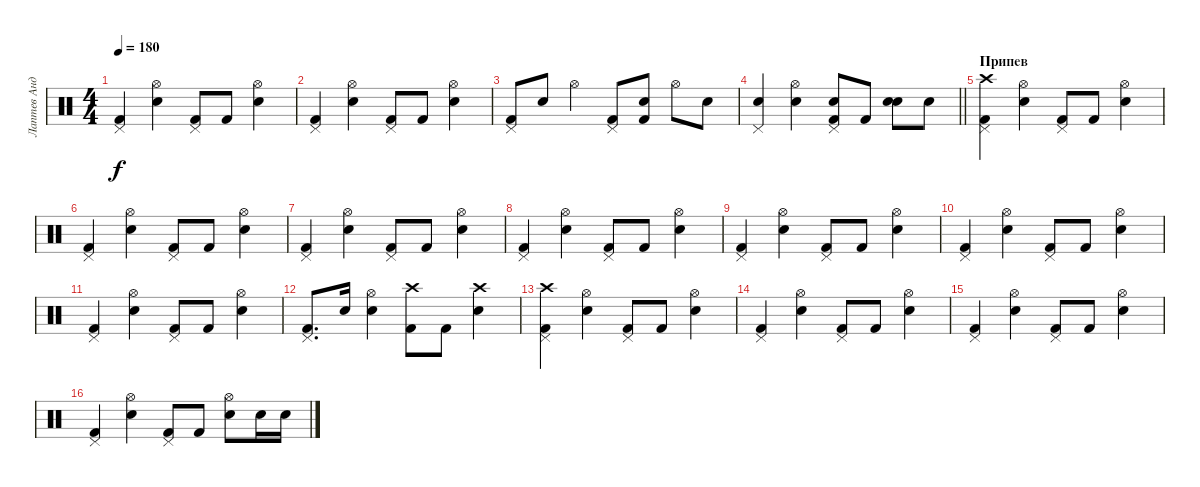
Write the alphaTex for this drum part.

\track ("Лаптев Андрей" "Лаптев Анд") {instrument percussion}
\staff {score}
\articulation defaults
\ts (4 4)
\tempo 180
\clef neutral
\ks c
("Kick (hit) 2" "Pedal Hi-Hat (hit)").4{dy f} ("Snare (hit) 2" "Hi-Hat (open)").4 ("Kick (hit) 2" "Pedal Hi-Hat (hit)").8 "Kick (hit) 2".8 ("Snare (hit) 2" "Hi-Hat (open)").4 |
("Kick (hit) 2" "Pedal Hi-Hat (hit)").4 ("Snare (hit) 2" "Hi-Hat (open)").4 ("Kick (hit) 2" "Pedal Hi-Hat (hit)").8 "Kick (hit) 2".8 ("Snare (hit) 2" "Hi-Hat (open)").4 |
("Kick (hit) 2" "Pedal Hi-Hat (hit)").8 "Snare (hit) 2".8 "Hi-Hat (open)".4 ("Kick (hit) 2" "Pedal Hi-Hat (hit)").8 ("Snare (hit) 2" "Kick (hit) 2").8 "Hi-Hat (open)".8 "Snare (hit) 2".8 |
\barLineRight lightlight
("Snare (hit) 2" "Pedal Hi-Hat (hit)").4 ("Snare (hit) 2" "Hi-Hat (open)").4 ("Snare (hit) 2" "Kick (hit) 2" "Pedal Hi-Hat (hit)").8 "Kick (hit) 2".8 ("Snare (hit) 2" "Electric Snare (hit)").8 "Snare (hit) 2".8 |
\section ("" "Припев")
("Kick (hit) 2" "Crash high (hit)" "Pedal Hi-Hat (hit)").4 ("Snare (hit) 2" "Hi-Hat (open)").4 ("Kick (hit) 2" "Pedal Hi-Hat (hit)").8 "Kick (hit) 2".8 ("Snare (hit) 2" "Hi-Hat (open)").4 |
("Kick (hit) 2" "Pedal Hi-Hat (hit)").4 ("Snare (hit) 2" "Hi-Hat (open)").4 ("Kick (hit) 2" "Pedal Hi-Hat (hit)").8 "Kick (hit) 2".8 ("Snare (hit) 2" "Hi-Hat (open)").4 |
("Kick (hit) 2" "Pedal Hi-Hat (hit)").4 ("Snare (hit) 2" "Hi-Hat (open)").4 ("Kick (hit) 2" "Pedal Hi-Hat (hit)").8 "Kick (hit) 2".8 ("Snare (hit) 2" "Hi-Hat (open)").4 |
("Kick (hit) 2" "Pedal Hi-Hat (hit)").4 ("Snare (hit) 2" "Hi-Hat (open)").4 ("Kick (hit) 2" "Pedal Hi-Hat (hit)").8 "Kick (hit) 2".8 ("Snare (hit) 2" "Hi-Hat (open)").4 |
("Kick (hit) 2" "Pedal Hi-Hat (hit)").4 ("Snare (hit) 2" "Hi-Hat (open)").4 ("Kick (hit) 2" "Pedal Hi-Hat (hit)").8 "Kick (hit) 2".8 ("Snare (hit) 2" "Hi-Hat (open)").4 |
("Kick (hit) 2" "Pedal Hi-Hat (hit)").4 ("Snare (hit) 2" "Hi-Hat (open)").4 ("Kick (hit) 2" "Pedal Hi-Hat (hit)").8 "Kick (hit) 2".8 ("Snare (hit) 2" "Hi-Hat (open)").4 |
("Kick (hit) 2" "Pedal Hi-Hat (hit)").4 ("Snare (hit) 2" "Hi-Hat (open)").4 ("Kick (hit) 2" "Pedal Hi-Hat (hit)").8 "Kick (hit) 2".8 ("Snare (hit) 2" "Hi-Hat (open)").4 |
("Kick (hit) 2" "Pedal Hi-Hat (hit)").8{d} "Snare (hit) 2".16 ("Snare (hit) 2" "Hi-Hat (open)").4 ("Kick (hit) 2" "Crash high (hit)").8 "Kick (hit) 2".8 ("Snare (hit) 2" "Crash high (hit)").4 |
("Kick (hit) 2" "Crash high (hit)" "Pedal Hi-Hat (hit)").4 ("Snare (hit) 2" "Hi-Hat (open)").4 ("Kick (hit) 2" "Pedal Hi-Hat (hit)").8 "Kick (hit) 2".8 ("Snare (hit) 2" "Hi-Hat (open)").4 |
("Kick (hit) 2" "Pedal Hi-Hat (hit)").4 ("Snare (hit) 2" "Hi-Hat (open)").4 ("Kick (hit) 2" "Pedal Hi-Hat (hit)").8 "Kick (hit) 2".8 ("Snare (hit) 2" "Hi-Hat (open)").4 |
("Kick (hit) 2" "Pedal Hi-Hat (hit)").4 ("Snare (hit) 2" "Hi-Hat (open)").4 ("Kick (hit) 2" "Pedal Hi-Hat (hit)").8 "Kick (hit) 2".8 ("Snare (hit) 2" "Hi-Hat (open)").4 |
("Kick (hit) 2" "Pedal Hi-Hat (hit)").4 ("Snare (hit) 2" "Hi-Hat (open)").4 ("Kick (hit) 2" "Pedal Hi-Hat (hit)").8 "Kick (hit) 2".8 ("Snare (hit) 2" "Hi-Hat (open)").8 "Snare (hit) 2".16 "Snare (hit) 2".16
